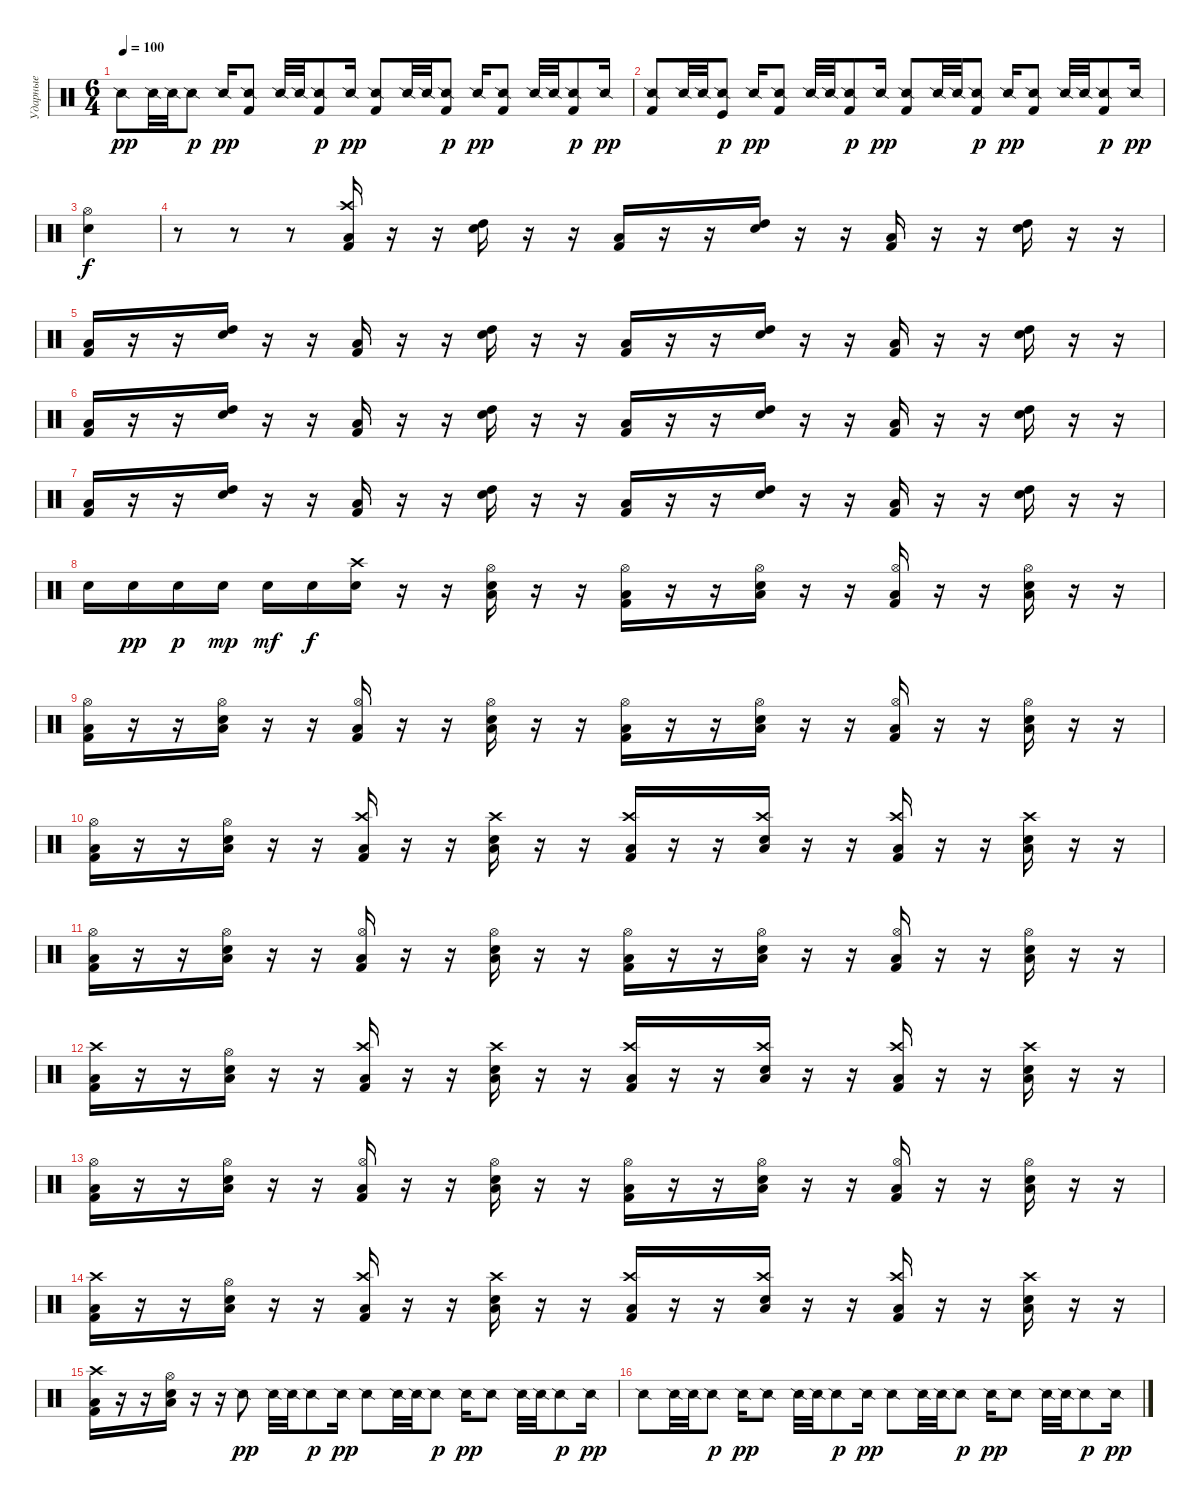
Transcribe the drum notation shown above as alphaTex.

\track ("Ударные" "Ударные") {instrument percussion}
\staff {score}
\articulation defaults
\ts (6 4)
\tempo 100
\clef neutral
\ks c "Snare (side stick) 2".8{dy pp} "Snare (side stick) 2".32 "Snare (side stick) 2".32 "Snare (side stick) 2".8{dy p} "Snare (side stick) 2".16{dy pp}
("Snare (side stick) 2" "Kick (hit) 2").8 "Snare (side stick) 2".32 "Snare (side stick) 2".32 ("Snare (side stick) 2" "Kick (hit) 2").8{dy p} "Snare (side stick) 2".16{dy pp} ("Snare (side stick) 2" "Kick (hit) 2").8 "Snare (side stick) 2".32 "Snare (side stick) 2".32 ("Snare (side stick) 2" "Kick (hit) 2").8{dy p} "Snare (side stick) 2".16{dy pp} ("Snare (side stick) 2" "Kick (hit) 2").8 "Snare (side stick) 2".32 "Snare (side stick) 2".32 ("Snare (side stick) 2" "Kick (hit) 2").8{dy p} "Snare (side stick) 2".16{dy pp} |
("Snare (side stick) 2" "Kick (hit) 2").8 "Snare (side stick) 2".32 "Snare (side stick) 2".32 ("Snare (side stick) 2" "Kick (hit)").8{dy p} "Snare (side stick) 2".16{dy pp} ("Snare (side stick) 2" "Kick (hit) 2").8 "Snare (side stick) 2".32 "Snare (side stick) 2".32 ("Snare (side stick) 2" "Kick (hit) 2").8{dy p} "Snare (side stick) 2".16{dy pp} ("Snare (side stick) 2" "Kick (hit) 2").8 "Snare (side stick) 2".32 "Snare (side stick) 2".32 ("Snare (side stick) 2" "Kick (hit) 2").8{dy p} "Snare (side stick) 2".16{dy pp} ("Snare (side stick) 2" "Kick (hit) 2").8 "Snare (side stick) 2".32 "Snare (side stick) 2".32 ("Snare (side stick) 2" "Kick (hit) 2").8{dy p} "Snare (side stick) 2".16{dy pp} |
("Hi-Hat (open)" "Snare (hit) 2").4{dy f} |
r.8 r.8 r.8 ("Crash high (hit)" "Low Tom (hit)" "Kick (hit) 2").16 r.16 r.16 ("High Tom (hit)" "Snare (hit) 2").16 r.16 r.16 ("Low Tom (hit)" "Kick (hit) 2").16 r.16 r.16 ("High Tom (hit)" "Snare (hit) 2").16 r.16 r.16 ("Low Tom (hit)" "Kick (hit) 2").16 r.16 r.16 ("High Tom (hit)" "Snare (hit) 2").16 r.16 r.16 |
("Low Tom (hit)" "Kick (hit) 2").16 r.16 r.16 ("High Tom (hit)" "Snare (hit) 2").16 r.16 r.16 ("Low Tom (hit)" "Kick (hit) 2").16 r.16 r.16 ("High Tom (hit)" "Snare (hit) 2").16 r.16 r.16 ("Low Tom (hit)" "Kick (hit) 2").16 r.16 r.16 ("High Tom (hit)" "Snare (hit) 2").16 r.16 r.16 ("Low Tom (hit)" "Kick (hit) 2").16 r.16 r.16 ("High Tom (hit)" "Snare (hit) 2").16 r.16 r.16 |
("Low Tom (hit)" "Kick (hit) 2").16 r.16 r.16 ("High Tom (hit)" "Snare (hit) 2").16 r.16 r.16 ("Low Tom (hit)" "Kick (hit) 2").16 r.16 r.16 ("High Tom (hit)" "Snare (hit) 2").16 r.16 r.16 ("Low Tom (hit)" "Kick (hit) 2").16 r.16 r.16 ("High Tom (hit)" "Snare (hit) 2").16 r.16 r.16 ("Low Tom (hit)" "Kick (hit) 2").16 r.16 r.16 ("High Tom (hit)" "Snare (hit) 2").16 r.16 r.16 |
("Low Tom (hit)" "Kick (hit) 2").16 r.16 r.16 ("High Tom (hit)" "Snare (hit) 2").16 r.16 r.16 ("Low Tom (hit)" "Kick (hit) 2").16 r.16 r.16 ("High Tom (hit)" "Snare (hit) 2").16 r.16 r.16 ("Low Tom (hit)" "Kick (hit) 2").16 r.16 r.16 ("High Tom (hit)" "Snare (hit) 2").16 r.16 r.16 ("Low Tom (hit)" "Kick (hit) 2").16 r.16 r.16 ("High Tom (hit)" "Snare (hit) 2").16 r.16 r.16 |
"Snare (hit) 2".16 "Snare (hit) 2".16{dy pp} "Snare (hit) 2".16{dy p} "Snare (hit) 2".16{dy mp} "Snare (hit) 2".16{dy mf} "Snare (hit) 2".16{dy f} ("Crash high (hit)" "Snare (hit) 2").16 r.16 r.16 ("Hi-Hat (open)" "Low Tom (hit)" "Snare (hit) 2").16 r.16 r.16 ("Hi-Hat (open)" "Low Tom (hit)" "Kick (hit) 2").16 r.16 r.16 ("Hi-Hat (open)" "Low Tom (hit)" "Snare (hit) 2").16 r.16 r.16 ("Hi-Hat (open)" "Low Tom (hit)" "Kick (hit) 2").16 r.16 r.16 ("Hi-Hat (open)" "Low Tom (hit)" "Snare (hit) 2").16 r.16 r.16 |
("Hi-Hat (open)" "Low Tom (hit)" "Kick (hit) 2").16 r.16 r.16 ("Hi-Hat (open)" "Low Tom (hit)" "Snare (hit) 2").16 r.16 r.16 ("Hi-Hat (open)" "Low Tom (hit)" "Kick (hit) 2").16 r.16 r.16 ("Hi-Hat (open)" "Low Tom (hit)" "Snare (hit) 2").16 r.16 r.16 ("Hi-Hat (open)" "Low Tom (hit)" "Kick (hit) 2").16 r.16 r.16 ("Hi-Hat (open)" "Low Tom (hit)" "Snare (hit) 2").16 r.16 r.16 ("Hi-Hat (open)" "Low Tom (hit)" "Kick (hit) 2").16 r.16 r.16 ("Hi-Hat (open)" "Low Tom (hit)" "Snare (hit) 2").16 r.16 r.16 |
("Hi-Hat (open)" "Low Tom (hit)" "Kick (hit) 2").16 r.16 r.16 ("Hi-Hat (open)" "Low Tom (hit)" "Snare (hit) 2").16 r.16 r.16 ("Crash high (hit)" "Low Tom (hit)" "Kick (hit) 2").16 r.16 r.16 ("Crash high (hit)" "Low Tom (hit)" "Snare (hit) 2").16 r.16 r.16 ("Crash high (hit)" "Low Tom (hit)" "Kick (hit) 2").16 r.16 r.16 ("Crash high (hit)" "Low Tom (hit)" "Snare (hit) 2").16 r.16 r.16 ("Crash high (hit)" "Low Tom (hit)" "Kick (hit) 2").16 r.16 r.16 ("Crash high (hit)" "Low Tom (hit)" "Snare (hit) 2").16 r.16 r.16 |
("Hi-Hat (open)" "Low Tom (hit)" "Kick (hit) 2").16 r.16 r.16 ("Hi-Hat (open)" "Low Tom (hit)" "Snare (hit) 2").16 r.16 r.16 ("Hi-Hat (open)" "Low Tom (hit)" "Kick (hit) 2").16 r.16 r.16 ("Hi-Hat (open)" "Low Tom (hit)" "Snare (hit) 2").16 r.16 r.16 ("Hi-Hat (open)" "Low Tom (hit)" "Kick (hit) 2").16 r.16 r.16 ("Hi-Hat (open)" "Low Tom (hit)" "Snare (hit) 2").16 r.16 r.16 ("Hi-Hat (open)" "Low Tom (hit)" "Kick (hit) 2").16 r.16 r.16 ("Hi-Hat (open)" "Low Tom (hit)" "Snare (hit) 2").16 r.16 r.16 |
("Crash high (hit)" "Low Tom (hit)" "Kick (hit) 2").16 r.16 r.16 ("Hi-Hat (open)" "Low Tom (hit)" "Snare (hit) 2").16 r.16 r.16 ("Crash high (hit)" "Low Tom (hit)" "Kick (hit) 2").16 r.16 r.16 ("Crash high (hit)" "Low Tom (hit)" "Snare (hit) 2").16 r.16 r.16 ("Crash high (hit)" "Low Tom (hit)" "Kick (hit) 2").16 r.16 r.16 ("Crash high (hit)" "Low Tom (hit)" "Snare (hit) 2").16 r.16 r.16 ("Crash high (hit)" "Low Tom (hit)" "Kick (hit) 2").16 r.16 r.16 ("Crash high (hit)" "Low Tom (hit)" "Snare (hit) 2").16 r.16 r.16 |
("Hi-Hat (open)" "Low Tom (hit)" "Kick (hit) 2").16 r.16 r.16 ("Hi-Hat (open)" "Low Tom (hit)" "Snare (hit) 2").16 r.16 r.16 ("Hi-Hat (open)" "Low Tom (hit)" "Kick (hit) 2").16 r.16 r.16 ("Hi-Hat (open)" "Low Tom (hit)" "Snare (hit) 2").16 r.16 r.16 ("Hi-Hat (open)" "Low Tom (hit)" "Kick (hit) 2").16 r.16 r.16 ("Hi-Hat (open)" "Low Tom (hit)" "Snare (hit) 2").16 r.16 r.16 ("Hi-Hat (open)" "Low Tom (hit)" "Kick (hit) 2").16 r.16 r.16 ("Hi-Hat (open)" "Low Tom (hit)" "Snare (hit) 2").16 r.16 r.16 |
("Crash high (hit)" "Low Tom (hit)" "Kick (hit) 2").16 r.16 r.16 ("Hi-Hat (open)" "Low Tom (hit)" "Snare (hit) 2").16 r.16 r.16 ("Crash high (hit)" "Low Tom (hit)" "Kick (hit) 2").16 r.16 r.16 ("Crash high (hit)" "Low Tom (hit)" "Snare (hit) 2").16 r.16 r.16 ("Crash high (hit)" "Low Tom (hit)" "Kick (hit) 2").16 r.16 r.16 ("Crash high (hit)" "Low Tom (hit)" "Snare (hit) 2").16 r.16 r.16 ("Crash high (hit)" "Low Tom (hit)" "Kick (hit) 2").16 r.16 r.16 ("Crash high (hit)" "Low Tom (hit)" "Snare (hit) 2").16 r.16 r.16 |
("Crash high (hit)" "Low Tom (hit)" "Kick (hit) 2").16 r.16 r.16 ("Hi-Hat (open)" "Low Tom (hit)" "Snare (hit) 2").16 r.16 r.16 "Snare (side stick) 2".8{dy pp} "Snare (side stick) 2".32 "Snare (side stick) 2".32 "Snare (side stick) 2".8{dy p} "Snare (side stick) 2".16{dy pp} "Snare (side stick) 2".8 "Snare (side stick) 2".32 "Snare (side stick) 2".32 "Snare (side stick) 2".8{dy p} "Snare (side stick) 2".16{dy pp} "Snare (side stick) 2".8 "Snare (side stick) 2".32 "Snare (side stick) 2".32 "Snare (side stick) 2".8{dy p} "Snare (side stick) 2".16{dy pp} |
"Snare (side stick) 2".8 "Snare (side stick) 2".32 "Snare (side stick) 2".32 "Snare (side stick) 2".8{dy p} "Snare (side stick) 2".16{dy pp} "Snare (side stick) 2".8 "Snare (side stick) 2".32 "Snare (side stick) 2".32 "Snare (side stick) 2".8{dy p} "Snare (side stick) 2".16{dy pp} "Snare (side stick) 2".8 "Snare (side stick) 2".32 "Snare (side stick) 2".32 "Snare (side stick) 2".8{dy p} "Snare (side stick) 2".16{dy pp} "Snare (side stick) 2".8 "Snare (side stick) 2".32 "Snare (side stick) 2".32 "Snare (side stick) 2".8{dy p} "Snare (side stick) 2".16{dy pp}
